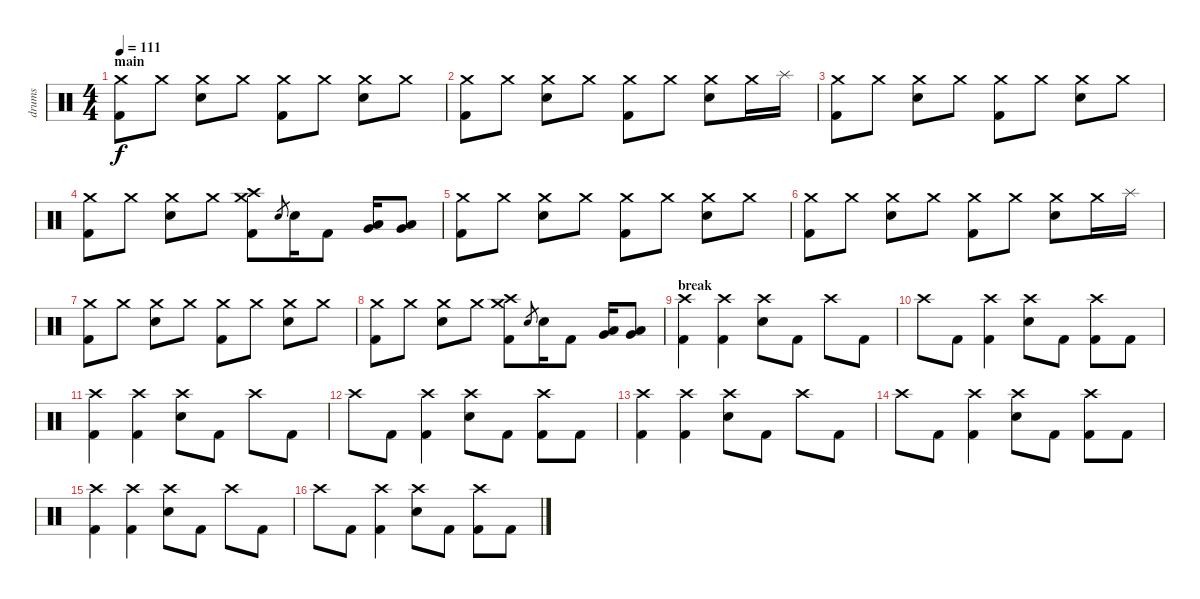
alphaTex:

\track ("drums" "drums") {instrument percussion}
\staff {score}
\articulation defaults
\ts (4 4)
\section ("" "main")
\tempo 111
\clef neutral
\ks c
("Crash medium (hit)" "Kick (hit) 2").8{dy f} "Crash medium (hit)".8 ("Crash medium (hit)" "Electric Snare (hit)").8 "Crash medium (hit)".8 ("Crash medium (hit)" "Kick (hit) 2").8 "Crash medium (hit)".8 ("Crash medium (hit)" "Electric Snare (hit)").8 "Crash medium (hit)".8 |
("Crash medium (hit)" "Kick (hit) 2").8 "Crash medium (hit)".8 ("Crash medium (hit)" "Electric Snare (hit)").8 "Crash medium (hit)".8 ("Crash medium (hit)" "Kick (hit) 2").8 "Crash medium (hit)".8 ("Crash medium (hit)" "Electric Snare (hit)").8 "Crash medium (hit)".16 "Splash (hit)".16 |
("Crash medium (hit)" "Kick (hit) 2").8 "Crash medium (hit)".8 ("Crash medium (hit)" "Electric Snare (hit)").8 "Crash medium (hit)".8 ("Crash medium (hit)" "Kick (hit) 2").8 "Crash medium (hit)".8 ("Crash medium (hit)" "Electric Snare (hit)").8 "Crash medium (hit)".8 |
("Crash medium (hit)" "Kick (hit) 2").8 "Crash medium (hit)".8 ("Crash medium (hit)" "Electric Snare (hit)").8 "Crash medium (hit)".8 ("Crash medium (hit)" "Crash high (hit)" "Kick (hit) 2").8 "Electric Snare (hit)".8{gr} "Electric Snare (hit)".16 "Kick (hit) 2".8 ("Very Low Tom (hit)" "Low Tom (hit)").16 ("Very Low Tom (hit)" "Low Floor Tom (hit)").8 |
("Crash medium (hit)" "Kick (hit) 2").8 "Crash medium (hit)".8 ("Crash medium (hit)" "Electric Snare (hit)").8 "Crash medium (hit)".8 ("Crash medium (hit)" "Kick (hit) 2").8 "Crash medium (hit)".8 ("Crash medium (hit)" "Electric Snare (hit)").8 "Crash medium (hit)".8 |
("Crash medium (hit)" "Kick (hit) 2").8 "Crash medium (hit)".8 ("Crash medium (hit)" "Electric Snare (hit)").8 "Crash medium (hit)".8 ("Crash medium (hit)" "Kick (hit) 2").8 "Crash medium (hit)".8 ("Crash medium (hit)" "Electric Snare (hit)").8 "Crash medium (hit)".16 "Splash (hit)".16 |
("Crash medium (hit)" "Kick (hit) 2").8 "Crash medium (hit)".8 ("Crash medium (hit)" "Electric Snare (hit)").8 "Crash medium (hit)".8 ("Crash medium (hit)" "Kick (hit) 2").8 "Crash medium (hit)".8 ("Crash medium (hit)" "Electric Snare (hit)").8 "Crash medium (hit)".8 |
("Crash medium (hit)" "Kick (hit) 2").8 "Crash medium (hit)".8 ("Crash medium (hit)" "Electric Snare (hit)").8 "Crash medium (hit)".8 ("Crash medium (hit)" "Crash high (hit)" "Kick (hit) 2").8 "Electric Snare (hit)".8{gr} "Electric Snare (hit)".16 "Kick (hit) 2".8 ("Very Low Tom (hit)" "Low Tom (hit)").16 ("Very Low Tom (hit)" "Low Floor Tom (hit)").8 |
\section ("" "break")
("Crash high (hit)" "Kick (hit) 2").4 ("Crash high (hit)" "Kick (hit) 2").4 ("Crash high (hit)" "Electric Snare (hit)").8 "Kick (hit) 2".8 "Crash high (hit)".8 "Kick (hit) 2".8 |
"Crash high (hit)".8 "Kick (hit) 2".8 ("Crash high (hit)" "Kick (hit) 2").4 ("Crash high (hit)" "Electric Snare (hit)").8 "Kick (hit) 2".8 ("Crash high (hit)" "Kick (hit) 2").8 "Kick (hit) 2".8 |
("Crash high (hit)" "Kick (hit) 2").4 ("Crash high (hit)" "Kick (hit) 2").4 ("Crash high (hit)" "Electric Snare (hit)").8 "Kick (hit) 2".8 "Crash high (hit)".8 "Kick (hit) 2".8 |
"Crash high (hit)".8 "Kick (hit) 2".8 ("Crash high (hit)" "Kick (hit) 2").4 ("Crash high (hit)" "Electric Snare (hit)").8 "Kick (hit) 2".8 ("Crash high (hit)" "Kick (hit) 2").8 "Kick (hit) 2".8 |
("Crash high (hit)" "Kick (hit) 2").4 ("Crash high (hit)" "Kick (hit) 2").4 ("Crash high (hit)" "Electric Snare (hit)").8 "Kick (hit) 2".8 "Crash high (hit)".8 "Kick (hit) 2".8 |
"Crash high (hit)".8 "Kick (hit) 2".8 ("Crash high (hit)" "Kick (hit) 2").4 ("Crash high (hit)" "Electric Snare (hit)").8 "Kick (hit) 2".8 ("Crash high (hit)" "Kick (hit) 2").8 "Kick (hit) 2".8 |
("Crash high (hit)" "Kick (hit) 2").4 ("Crash high (hit)" "Kick (hit) 2").4 ("Crash high (hit)" "Electric Snare (hit)").8 "Kick (hit) 2".8 "Crash high (hit)".8 "Kick (hit) 2".8 |
"Crash high (hit)".8 "Kick (hit) 2".8 ("Crash high (hit)" "Kick (hit) 2").4 ("Crash high (hit)" "Electric Snare (hit)").8 "Kick (hit) 2".8 ("Crash high (hit)" "Kick (hit) 2").8 "Kick (hit) 2".8
